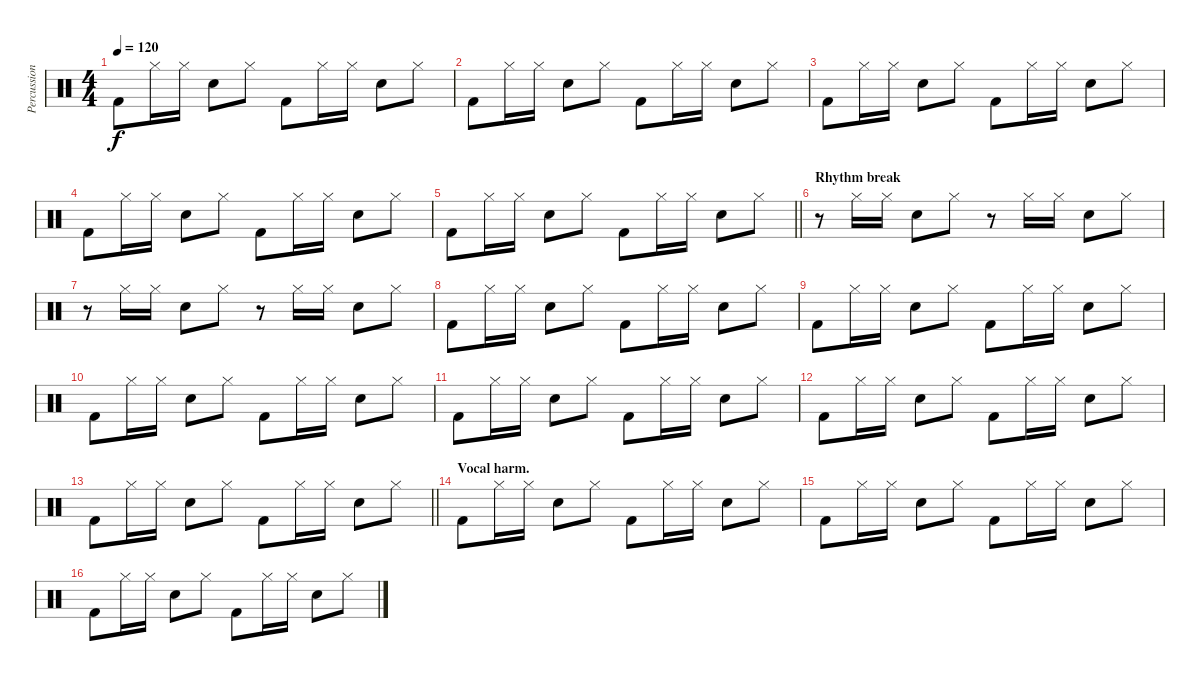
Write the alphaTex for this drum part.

\track ("Percussion" "Percussion") {instrument percussion}
\staff {score}
\articulation defaults
\ts (4 4)
\tempo 120
\clef neutral
\ks c "Kick (hit) 2".8{dy f} "Hi-Hat (closed)".16 "Hi-Hat (closed)".16 "Snare (hit) 2".8 "Hi-Hat (closed)".8 "Kick (hit) 2".8 "Hi-Hat (closed)".16 "Hi-Hat (closed)".16 "Snare (hit) 2".8 "Hi-Hat (closed)".8
|
"Kick (hit) 2".8 "Hi-Hat (closed)".16 "Hi-Hat (closed)".16 "Snare (hit) 2".8 "Hi-Hat (closed)".8 "Kick (hit) 2".8 "Hi-Hat (closed)".16 "Hi-Hat (closed)".16 "Snare (hit) 2".8 "Hi-Hat (closed)".8 |
"Kick (hit) 2".8 "Hi-Hat (closed)".16 "Hi-Hat (closed)".16 "Snare (hit) 2".8 "Hi-Hat (closed)".8 "Kick (hit) 2".8 "Hi-Hat (closed)".16 "Hi-Hat (closed)".16 "Snare (hit) 2".8 "Hi-Hat (closed)".8 |
"Kick (hit) 2".8 "Hi-Hat (closed)".16 "Hi-Hat (closed)".16 "Snare (hit) 2".8 "Hi-Hat (closed)".8 "Kick (hit) 2".8 "Hi-Hat (closed)".16 "Hi-Hat (closed)".16 "Snare (hit) 2".8 "Hi-Hat (closed)".8 |
\barLineRight lightlight "Kick (hit) 2".8 "Hi-Hat (closed)".16 "Hi-Hat (closed)".16 "Snare (hit) 2".8 "Hi-Hat (closed)".8 "Kick (hit) 2".8 "Hi-Hat (closed)".16 "Hi-Hat (closed)".16 "Snare (hit) 2".8 "Hi-Hat (closed)".8
|
\section ("" "Rhythm break")
r.8 "Hi-Hat (closed)".16 "Hi-Hat (closed)".16 "Snare (hit) 2".8 "Hi-Hat (closed)".8 r.8 "Hi-Hat (closed)".16 "Hi-Hat (closed)".16 "Snare (hit) 2".8 "Hi-Hat (closed)".8 |
r.8 "Hi-Hat (closed)".16 "Hi-Hat (closed)".16 "Snare (hit) 2".8 "Hi-Hat (closed)".8 r.8 "Hi-Hat (closed)".16 "Hi-Hat (closed)".16 "Snare (hit) 2".8 "Hi-Hat (closed)".8 |
"Kick (hit) 2".8 "Hi-Hat (closed)".16 "Hi-Hat (closed)".16 "Snare (hit) 2".8 "Hi-Hat (closed)".8 "Kick (hit) 2".8 "Hi-Hat (closed)".16 "Hi-Hat (closed)".16 "Snare (hit) 2".8 "Hi-Hat (closed)".8 |
"Kick (hit) 2".8 "Hi-Hat (closed)".16 "Hi-Hat (closed)".16 "Snare (hit) 2".8 "Hi-Hat (closed)".8 "Kick (hit) 2".8 "Hi-Hat (closed)".16 "Hi-Hat (closed)".16 "Snare (hit) 2".8 "Hi-Hat (closed)".8 |
"Kick (hit) 2".8 "Hi-Hat (closed)".16 "Hi-Hat (closed)".16 "Snare (hit) 2".8 "Hi-Hat (closed)".8 "Kick (hit) 2".8 "Hi-Hat (closed)".16 "Hi-Hat (closed)".16 "Snare (hit) 2".8 "Hi-Hat (closed)".8 |
"Kick (hit) 2".8 "Hi-Hat (closed)".16 "Hi-Hat (closed)".16 "Snare (hit) 2".8 "Hi-Hat (closed)".8 "Kick (hit) 2".8 "Hi-Hat (closed)".16 "Hi-Hat (closed)".16 "Snare (hit) 2".8 "Hi-Hat (closed)".8 |
"Kick (hit) 2".8 "Hi-Hat (closed)".16 "Hi-Hat (closed)".16 "Snare (hit) 2".8 "Hi-Hat (closed)".8 "Kick (hit) 2".8 "Hi-Hat (closed)".16 "Hi-Hat (closed)".16 "Snare (hit) 2".8 "Hi-Hat (closed)".8 |
\barLineRight lightlight "Kick (hit) 2".8 "Hi-Hat (closed)".16 "Hi-Hat (closed)".16 "Snare (hit) 2".8 "Hi-Hat (closed)".8 "Kick (hit) 2".8 "Hi-Hat (closed)".16 "Hi-Hat (closed)".16 "Snare (hit) 2".8 "Hi-Hat (closed)".8
|
\section ("" "Vocal harm.")
"Kick (hit) 2".8 "Hi-Hat (closed)".16 "Hi-Hat (closed)".16 "Snare (hit) 2".8 "Hi-Hat (closed)".8 "Kick (hit) 2".8 "Hi-Hat (closed)".16 "Hi-Hat (closed)".16 "Snare (hit) 2".8 "Hi-Hat (closed)".8 |
"Kick (hit) 2".8 "Hi-Hat (closed)".16 "Hi-Hat (closed)".16 "Snare (hit) 2".8 "Hi-Hat (closed)".8 "Kick (hit) 2".8 "Hi-Hat (closed)".16 "Hi-Hat (closed)".16 "Snare (hit) 2".8 "Hi-Hat (closed)".8 |
"Kick (hit) 2".8 "Hi-Hat (closed)".16 "Hi-Hat (closed)".16 "Snare (hit) 2".8 "Hi-Hat (closed)".8 "Kick (hit) 2".8 "Hi-Hat (closed)".16 "Hi-Hat (closed)".16 "Snare (hit) 2".8 "Hi-Hat (closed)".8
